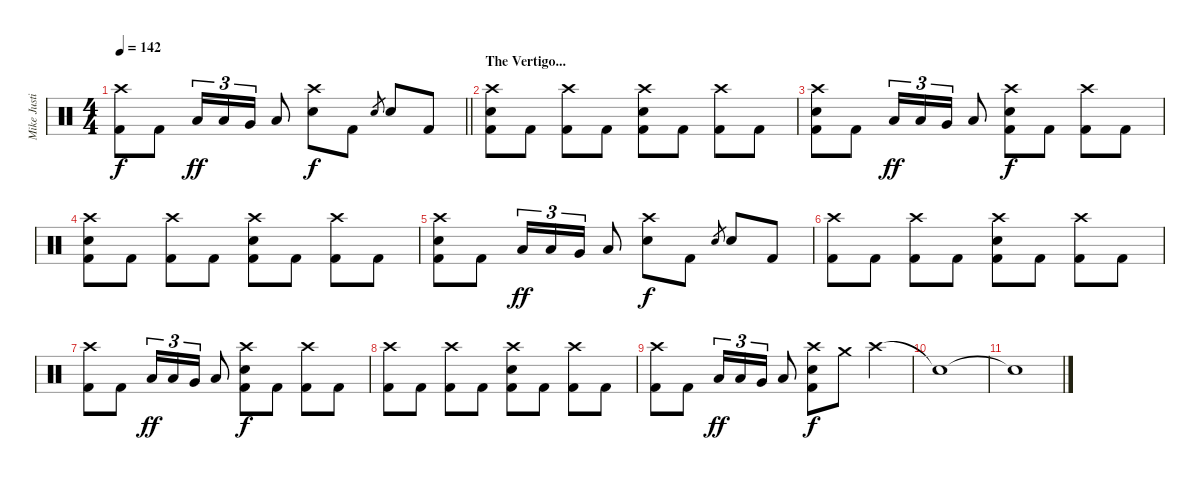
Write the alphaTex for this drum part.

\track ("Mike Justian" "Mike Justi") {instrument percussion}
\staff {score}
\articulation defaults
\ts (4 4)
\tempo 142
\clef neutral
\barLineRight lightlight
\ks c
("Crash high (hit)" "Kick (hit) 2").8{dy f} "Kick (hit) 2".8 "Low Floor Tom (hit)".16{tu (3 2) dy ff} "Low Tom (hit)".16{tu (3 2)} "Very Low Tom (hit)".16{tu (3 2)} "Low Floor Tom (hit)".8 ("Crash high (hit)" "Electric Snare (hit)").8{dy f} "Kick (hit) 2".8 "Electric Snare (hit)".8{gr} "Electric Snare (hit)".8 "Kick (hit) 2".8 |
\section ("" "The Vertigo...")
("Crash high (hit)" "Electric Snare (hit)" "Kick (hit) 2").8 "Kick (hit) 2".8 ("Crash high (hit)" "Kick (hit) 2").8 "Kick (hit) 2".8 ("Crash high (hit)" "Electric Snare (hit)" "Kick (hit) 2").8 "Kick (hit) 2".8 ("Crash high (hit)" "Kick (hit) 2").8 "Kick (hit) 2".8 |
("Crash high (hit)" "Electric Snare (hit)" "Kick (hit) 2").8 "Kick (hit) 2".8 "Low Floor Tom (hit)".16{tu (3 2) dy ff} "Low Tom (hit)".16{tu (3 2)} "Very Low Tom (hit)".16{tu (3 2)} "Low Floor Tom (hit)".8 ("Crash high (hit)" "Electric Snare (hit)" "Kick (hit) 2").8{dy f} "Kick (hit) 2".8 ("Crash high (hit)" "Kick (hit) 2").8 "Kick (hit) 2".8 |
("Crash high (hit)" "Electric Snare (hit)" "Kick (hit) 2").8 "Kick (hit) 2".8 ("Crash high (hit)" "Kick (hit) 2").8 "Kick (hit) 2".8 ("Crash high (hit)" "Electric Snare (hit)" "Kick (hit) 2").8 "Kick (hit) 2".8 ("Crash high (hit)" "Kick (hit) 2").8 "Kick (hit) 2".8 |
("Crash high (hit)" "Electric Snare (hit)" "Kick (hit) 2").8 "Kick (hit) 2".8 "Low Floor Tom (hit)".16{tu (3 2) dy ff} "Low Tom (hit)".16{tu (3 2)} "Very Low Tom (hit)".16{tu (3 2)} "Low Floor Tom (hit)".8 ("Crash high (hit)" "Electric Snare (hit)").8{dy f} "Kick (hit) 2".8 "Electric Snare (hit)".8{gr} "Electric Snare (hit)".8 "Kick (hit) 2".8 |
("Crash high (hit)" "Kick (hit) 2").8 "Kick (hit) 2".8 ("Crash high (hit)" "Kick (hit) 2").8 "Kick (hit) 2".8 ("Crash high (hit)" "Electric Snare (hit)" "Kick (hit) 2").8 "Kick (hit) 2".8 ("Crash high (hit)" "Kick (hit) 2").8 "Kick (hit) 2".8 |
("Crash high (hit)" "Kick (hit) 2").8 "Kick (hit) 2".8 "Low Floor Tom (hit)".16{tu (3 2) dy ff} "Low Tom (hit)".16{tu (3 2)} "Very Low Tom (hit)".16{tu (3 2)} "Low Floor Tom (hit)".8 ("Crash high (hit)" "Electric Snare (hit)" "Kick (hit) 2").8{dy f} "Kick (hit) 2".8 ("Crash high (hit)" "Kick (hit) 2").8 "Kick (hit) 2".8 |
("Crash high (hit)" "Kick (hit) 2").8 "Kick (hit) 2".8 ("Crash high (hit)" "Kick (hit) 2").8 "Kick (hit) 2".8 ("Crash high (hit)" "Electric Snare (hit)" "Kick (hit) 2").8 "Kick (hit) 2".8 ("Crash high (hit)" "Kick (hit) 2").8 "Kick (hit) 2".8 |
("Crash high (hit)" "Kick (hit) 2").8 "Kick (hit) 2".8 "Low Floor Tom (hit)".16{tu (3 2) dy ff} "Low Tom (hit)".16{tu (3 2)} "Very Low Tom (hit)".16{tu (3 2)} "Low Floor Tom (hit)".8 ("Crash high (hit)" "Electric Snare (hit)" "Kick (hit) 2").8{dy f} "Crash medium (hit)".8 "Crash high (hit)".4 |
"Snare (hit)"{t}.1 |
"Snare (hit)"{t}.1
